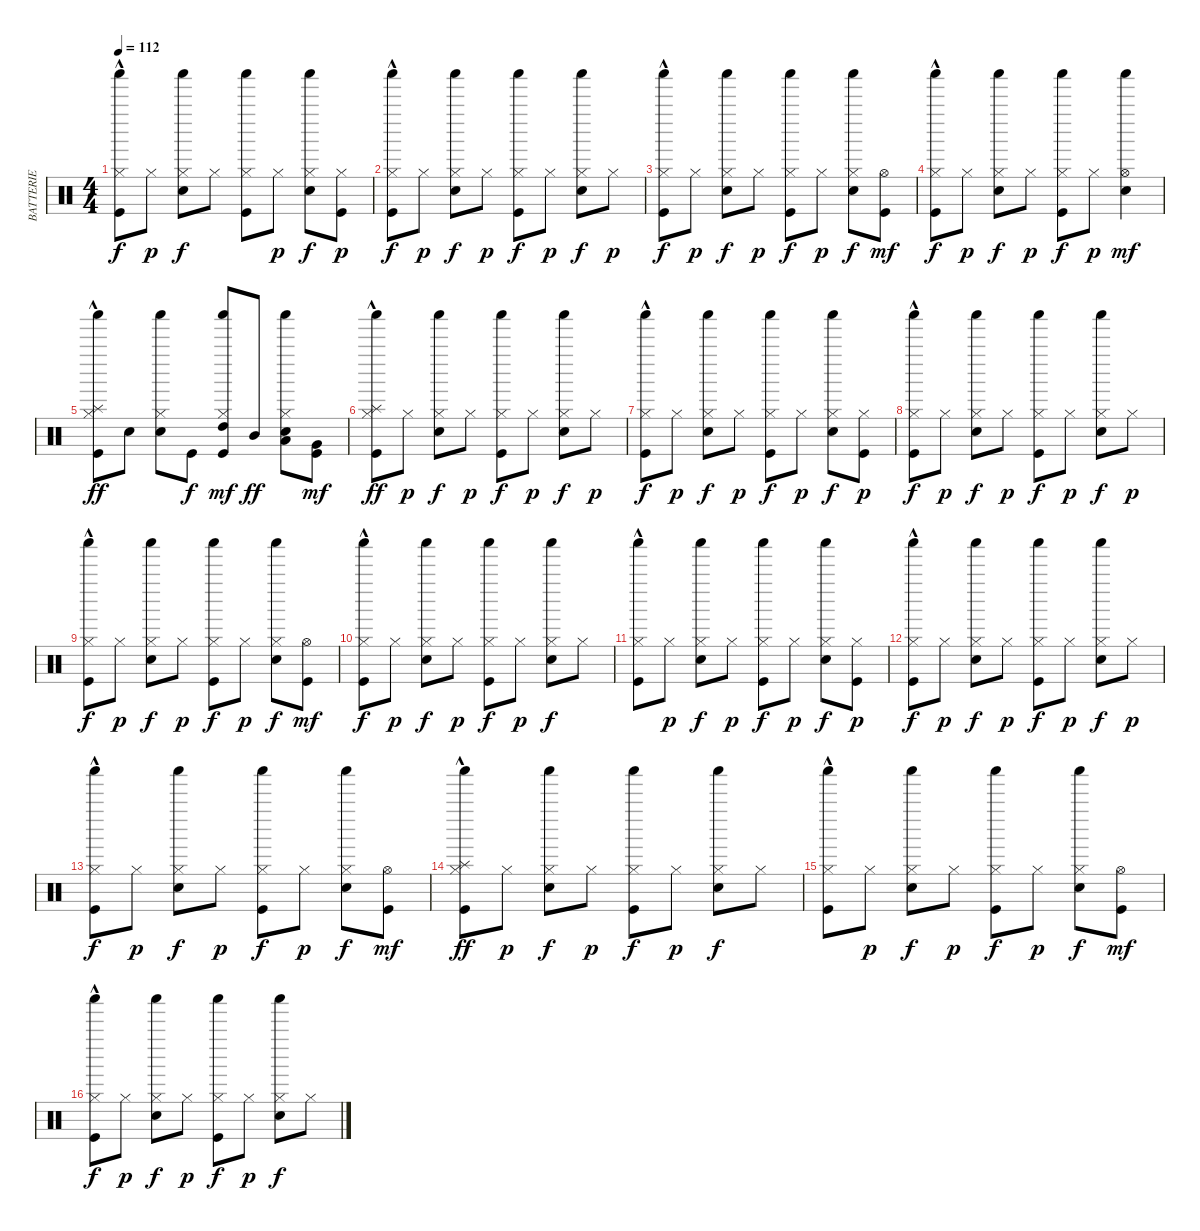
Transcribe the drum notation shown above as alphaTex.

\track ("BATTERIE" "BATTERIE") {instrument percussion}
\staff {score}
\articulation defaults
\ts (4 4)
\tempo 112
\clef neutral
\ks c
("Kick (hit)" "Hi-Hat (closed)"{hac} "Shaker (hit)").8{dy f} "Hi-Hat (closed)".8{dy p} ("Snare (hit) 2" "Hi-Hat (closed)" "Shaker (hit)").8{dy f} "Hi-Hat (closed)".8 ("Kick (hit)" "Hi-Hat (closed)" "Shaker (hit)").8 "Hi-Hat (closed)".8{dy p} ("Snare (hit) 2" "Hi-Hat (closed)" "Shaker (hit)").8{dy f} ("Kick (hit)" "Hi-Hat (closed)").8{dy p} |
("Kick (hit)" "Hi-Hat (closed)"{hac} "Shaker (hit)").8{dy f} "Hi-Hat (closed)".8{dy p} ("Snare (hit) 2" "Hi-Hat (closed)" "Shaker (hit)").8{dy f} "Hi-Hat (closed)".8{dy p} ("Kick (hit)" "Hi-Hat (closed)" "Shaker (hit)").8{dy f} "Hi-Hat (closed)".8{dy p} ("Snare (hit) 2" "Hi-Hat (closed)" "Shaker (hit)").8{dy f} "Hi-Hat (closed)".8{dy p} |
("Kick (hit)" "Hi-Hat (closed)"{hac} "Shaker (hit)").8{dy f} "Hi-Hat (closed)".8{dy p} ("Snare (hit) 2" "Hi-Hat (closed)" "Shaker (hit)").8{dy f} "Hi-Hat (closed)".8{dy p} ("Kick (hit)" "Hi-Hat (closed)" "Shaker (hit)").8{dy f} "Hi-Hat (closed)".8{dy p} ("Snare (hit) 2" "Hi-Hat (closed)" "Shaker (hit)").8{dy f} ("Kick (hit)" "Hi-Hat (open)").8{dy mf} |
("Kick (hit)" "Hi-Hat (closed)"{hac} "Shaker (hit)").8{dy f} "Hi-Hat (closed)".8{dy p} ("Snare (hit) 2" "Hi-Hat (closed)" "Shaker (hit)").8{dy f} "Hi-Hat (closed)".8{dy p} ("Kick (hit)" "Hi-Hat (closed)" "Shaker (hit)").8{dy f} "Hi-Hat (closed)".8{dy p} ("Snare (hit) 2" "Hi-Hat (open)" "Shaker (hit)").4{dy mf} |
("Kick (hit)" "Hi-Hat (closed)"{hac} "Shaker (hit)" "Splash (hit)").8{dy ff} "Snare (hit) 2".8 ("Snare (hit) 2" "Hi-Hat (closed)" "Shaker (hit)").8 "Kick (hit)".8{dy f} ("High Tom (hit)" "Kick (hit)" "Hi-Hat (closed)" "Shaker (hit)").8{dy mf} "Mid Tom (hit)".8{dy ff} ("Snare (hit) 2" "Hi-Hat (closed)" "Shaker (hit)" "Low Tom (hit)").8 ("Very Low Tom (hit)" "Kick (hit)").8{dy mf} |
("Kick (hit)" "Hi-Hat (closed)"{hac} "Shaker (hit)" "Splash (hit)"{hac}).8{dy ff} "Hi-Hat (closed)".8{dy p} ("Snare (hit) 2" "Hi-Hat (closed)" "Shaker (hit)").8{dy f} "Hi-Hat (closed)".8{dy p} ("Kick (hit)" "Hi-Hat (closed)" "Shaker (hit)").8{dy f} "Hi-Hat (closed)".8{dy p} ("Snare (hit) 2" "Hi-Hat (closed)" "Shaker (hit)").8{dy f} "Hi-Hat (closed)".8{dy p} |
("Kick (hit)" "Hi-Hat (closed)"{hac} "Shaker (hit)").8{dy f} "Hi-Hat (closed)".8{dy p} ("Snare (hit) 2" "Hi-Hat (closed)" "Shaker (hit)").8{dy f} "Hi-Hat (closed)".8{dy p} ("Kick (hit)" "Hi-Hat (closed)" "Shaker (hit)").8{dy f} "Hi-Hat (closed)".8{dy p} ("Snare (hit) 2" "Hi-Hat (closed)" "Shaker (hit)").8{dy f} ("Kick (hit)" "Hi-Hat (closed)").8{dy p} |
("Kick (hit)" "Hi-Hat (closed)"{hac} "Shaker (hit)").8{dy f} "Hi-Hat (closed)".8{dy p} ("Snare (hit) 2" "Hi-Hat (closed)" "Shaker (hit)").8{dy f} "Hi-Hat (closed)".8{dy p} ("Kick (hit)" "Hi-Hat (closed)" "Shaker (hit)").8{dy f} "Hi-Hat (closed)".8{dy p} ("Snare (hit) 2" "Hi-Hat (closed)" "Shaker (hit)").8{dy f} "Hi-Hat (closed)".8{dy p} |
("Kick (hit)" "Hi-Hat (closed)"{hac} "Shaker (hit)").8{dy f} "Hi-Hat (closed)".8{dy p} ("Snare (hit) 2" "Hi-Hat (closed)" "Shaker (hit)").8{dy f} "Hi-Hat (closed)".8{dy p} ("Kick (hit)" "Hi-Hat (closed)" "Shaker (hit)").8{dy f} "Hi-Hat (closed)".8{dy p} ("Snare (hit) 2" "Hi-Hat (closed)" "Shaker (hit)").8{dy f} ("Kick (hit)" "Hi-Hat (open)").8{dy mf} |
("Kick (hit)" "Hi-Hat (closed)"{hac} "Shaker (hit)").8{dy f} "Hi-Hat (closed)".8{dy p} ("Snare (hit) 2" "Hi-Hat (closed)" "Shaker (hit)").8{dy f} "Hi-Hat (closed)".8{dy p} ("Kick (hit)" "Hi-Hat (closed)" "Shaker (hit)").8{dy f} "Hi-Hat (closed)".8{dy p} ("Snare (hit) 2" "Hi-Hat (closed)" "Shaker (hit)").8{dy f} "Hi-Hat (closed)".8 |
("Kick (hit)" "Hi-Hat (closed)"{hac} "Shaker (hit)").8 "Hi-Hat (closed)".8{dy p} ("Snare (hit) 2" "Hi-Hat (closed)" "Shaker (hit)").8{dy f} "Hi-Hat (closed)".8{dy p} ("Kick (hit)" "Hi-Hat (closed)" "Shaker (hit)").8{dy f} "Hi-Hat (closed)".8{dy p} ("Snare (hit) 2" "Hi-Hat (closed)" "Shaker (hit)").8{dy f} ("Kick (hit)" "Hi-Hat (closed)").8{dy p} |
("Kick (hit)" "Hi-Hat (closed)"{hac} "Shaker (hit)").8{dy f} "Hi-Hat (closed)".8{dy p} ("Snare (hit) 2" "Hi-Hat (closed)" "Shaker (hit)").8{dy f} "Hi-Hat (closed)".8{dy p} ("Kick (hit)" "Hi-Hat (closed)" "Shaker (hit)").8{dy f} "Hi-Hat (closed)".8{dy p} ("Snare (hit) 2" "Hi-Hat (closed)" "Shaker (hit)").8{dy f} "Hi-Hat (closed)".8{dy p} |
("Kick (hit)" "Hi-Hat (closed)"{hac} "Shaker (hit)").8{dy f} "Hi-Hat (closed)".8{dy p} ("Snare (hit) 2" "Hi-Hat (closed)" "Shaker (hit)").8{dy f} "Hi-Hat (closed)".8{dy p} ("Kick (hit)" "Hi-Hat (closed)" "Shaker (hit)").8{dy f} "Hi-Hat (closed)".8{dy p} ("Snare (hit) 2" "Hi-Hat (closed)" "Shaker (hit)").8{dy f} ("Kick (hit)" "Hi-Hat (open)").8{dy mf} |
("Kick (hit)" "Hi-Hat (closed)"{hac} "Splash (hit)" "Shaker (hit)").8{dy ff} "Hi-Hat (closed)".8{dy p} ("Snare (hit) 2" "Hi-Hat (closed)" "Shaker (hit)").8{dy f} "Hi-Hat (closed)".8{dy p} ("Kick (hit)" "Hi-Hat (closed)" "Shaker (hit)").8{dy f} "Hi-Hat (closed)".8{dy p} ("Snare (hit) 2" "Hi-Hat (closed)" "Shaker (hit)").8{dy f} "Hi-Hat (closed)".8 |
("Kick (hit)" "Hi-Hat (closed)"{hac} "Shaker (hit)").8 "Hi-Hat (closed)".8{dy p} ("Snare (hit) 2" "Hi-Hat (closed)" "Shaker (hit)").8{dy f} "Hi-Hat (closed)".8{dy p} ("Kick (hit)" "Hi-Hat (closed)" "Shaker (hit)").8{dy f} "Hi-Hat (closed)".8{dy p} ("Snare (hit) 2" "Hi-Hat (closed)" "Shaker (hit)").8{dy f} ("Kick (hit)" "Hi-Hat (open)").8{dy mf} |
("Kick (hit)" "Hi-Hat (closed)"{hac} "Shaker (hit)").8{dy f} "Hi-Hat (closed)".8{dy p} ("Snare (hit) 2" "Hi-Hat (closed)" "Shaker (hit)").8{dy f} "Hi-Hat (closed)".8{dy p} ("Kick (hit)" "Hi-Hat (closed)" "Shaker (hit)").8{dy f} "Hi-Hat (closed)".8{dy p} ("Snare (hit) 2" "Hi-Hat (closed)" "Shaker (hit)").8{dy f} "Hi-Hat (closed)".8
